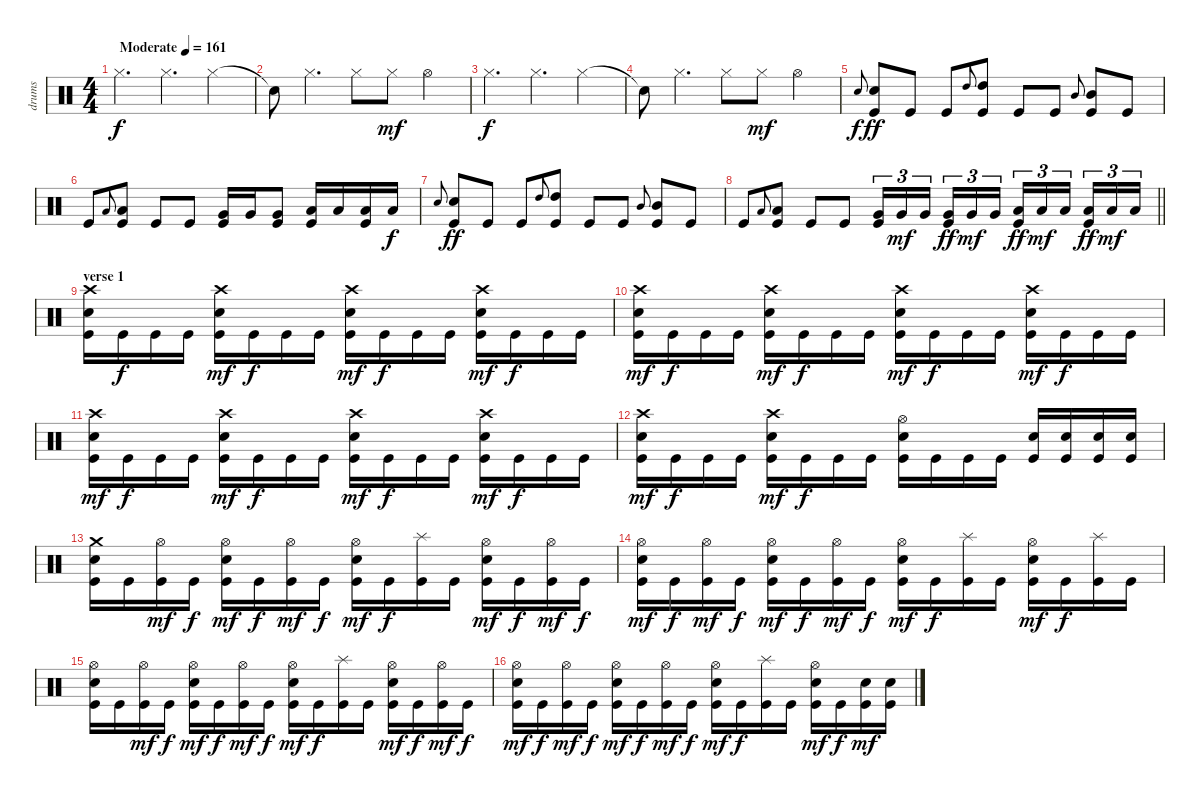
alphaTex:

\track ("drums" "drums") {instrument percussion}
\staff {score}
\articulation defaults
\ts (4 4)
\tempo (161 "Moderate")
\clef neutral
\ks c "Hi-Hat (closed)".4{d dy f} "Hi-Hat (closed)".4{d} "Hi-Hat (closed)".4
|
"Snare (hit)"{t}.8 "Hi-Hat (closed)".4{d} "Hi-Hat (closed)".8 "Hi-Hat (closed)".8{dy mf} "Hi-Hat (open)".4 |
"Hi-Hat (closed)".4{d dy f} "Hi-Hat (closed)".4{d} "Hi-Hat (closed)".4 |
"Snare (hit)"{t}.8 "Hi-Hat (closed)".4{d} "Hi-Hat (closed)".8 "Hi-Hat (closed)".8{dy mf} "Hi-Hat (open)".4 |
"Electric Snare (hit)".8{gr onbeat dy f} ("Electric Snare (hit)" "Kick (hit)").8{dy ff} "Kick (hit)".8 "Kick (hit)".8 "High Tom (hit)".8{gr onbeat} ("High Tom (hit)" "Kick (hit)").8 "Kick (hit)".8 "Kick (hit)".8 "Mid Tom (hit)".8{gr onbeat} ("Mid Tom (hit)" "Kick (hit)").8 "Kick (hit)".8 |
"Kick (hit)".8 "Low Tom (hit)".8{gr onbeat} ("Low Tom (hit)" "Kick (hit)").8 "Kick (hit)".8 "Kick (hit)".8 ("Very Low Tom (hit)" "Kick (hit)").16 "Very Low Tom (hit)".16 ("Very Low Tom (hit)" "Kick (hit)").8 ("Low Floor Tom (hit)" "Kick (hit)").16 "Low Floor Tom (hit)".16 ("Low Floor Tom (hit)" "Kick (hit)").16 "Low Floor Tom (hit)".16{dy f} |
"Electric Snare (hit)".8{gr onbeat} ("Electric Snare (hit)" "Kick (hit)").8{dy ff} "Kick (hit)".8 "Kick (hit)".8 "High Tom (hit)".8{gr onbeat} ("High Tom (hit)" "Kick (hit)").8 "Kick (hit)".8 "Kick (hit)".8 "Mid Tom (hit)".8{gr onbeat} ("Mid Tom (hit)" "Kick (hit)").8 "Kick (hit)".8 |
\barLineRight lightlight "Kick (hit)".8 "Low Tom (hit)".8{gr onbeat}
("Low Tom (hit)" "Kick (hit)").8 "Kick (hit)".8 "Kick (hit)".8 ("Very Low Tom (hit)" "Kick (hit)").16{tu (3 2)} "Very Low Tom (hit)".16{tu (3 2) dy mf} "Very Low Tom (hit)".16{tu (3 2) beam splitsecondary} ("Very Low Tom (hit)" "Kick (hit)").16{tu (3 2) dy ff} "Very Low Tom (hit)".16{tu (3 2) dy mf} "Very Low Tom (hit)".16{tu (3 2)} ("Low Floor Tom (hit)" "Kick (hit)").16{tu (3 2) dy ff} "Low Floor Tom (hit)".16{tu (3 2) dy mf} "Low Floor Tom (hit)".16{tu (3 2) beam splitsecondary} ("Low Floor Tom (hit)" "Kick (hit)").16{tu (3 2) dy ff} "Low Floor Tom (hit)".16{tu (3 2) dy mf} "Low Floor Tom (hit)".16{tu (3 2)} |
\section ("" "verse 1")
("Crash high (hit)" "Electric Snare (hit)" "Kick (hit)").16 "Kick (hit)".16{dy f} "Kick (hit)".16 "Kick (hit)".16 ("Crash high (hit)" "Electric Snare (hit)" "Kick (hit)").16{dy mf} "Kick (hit)".16{dy f} "Kick (hit)".16 "Kick (hit)".16 ("Crash high (hit)" "Electric Snare (hit)" "Kick (hit)").16{dy mf} "Kick (hit)".16{dy f} "Kick (hit)".16 "Kick (hit)".16 ("Crash high (hit)" "Electric Snare (hit)" "Kick (hit)").16{dy mf} "Kick (hit)".16{dy f} "Kick (hit)".16 "Kick (hit)".16 |
("Crash high (hit)" "Electric Snare (hit)" "Kick (hit)").16{dy mf} "Kick (hit)".16{dy f} "Kick (hit)".16 "Kick (hit)".16 ("Crash high (hit)" "Electric Snare (hit)" "Kick (hit)").16{dy mf} "Kick (hit)".16{dy f} "Kick (hit)".16 "Kick (hit)".16 ("Crash high (hit)" "Electric Snare (hit)" "Kick (hit)").16{dy mf} "Kick (hit)".16{dy f} "Kick (hit)".16 "Kick (hit)".16 ("Crash high (hit)" "Electric Snare (hit)" "Kick (hit)").16{dy mf} "Kick (hit)".16{dy f} "Kick (hit)".16 "Kick (hit)".16 |
("Crash high (hit)" "Electric Snare (hit)" "Kick (hit)").16{dy mf} "Kick (hit)".16{dy f} "Kick (hit)".16 "Kick (hit)".16 ("Crash high (hit)" "Electric Snare (hit)" "Kick (hit)").16{dy mf} "Kick (hit)".16{dy f} "Kick (hit)".16 "Kick (hit)".16 ("Crash high (hit)" "Electric Snare (hit)" "Kick (hit)").16{dy mf} "Kick (hit)".16{dy f} "Kick (hit)".16 "Kick (hit)".16 ("Crash high (hit)" "Electric Snare (hit)" "Kick (hit)").16{dy mf} "Kick (hit)".16{dy f} "Kick (hit)".16 "Kick (hit)".16 |
("Crash high (hit)" "Electric Snare (hit)" "Kick (hit)").16{dy mf} "Kick (hit)".16{dy f} "Kick (hit)".16 "Kick (hit)".16 ("Crash high (hit)" "Electric Snare (hit)" "Kick (hit)").16{dy mf} "Kick (hit)".16{dy f} "Kick (hit)".16 "Kick (hit)".16 ("Hi-Hat (open)" "Electric Snare (hit)" "Kick (hit)").16 "Kick (hit)".16 "Kick (hit)".16 "Kick (hit)".16 ("Electric Snare (hit)" "Kick (hit)").16 ("Electric Snare (hit)" "Kick (hit)").16 ("Electric Snare (hit)" "Kick (hit)").16 ("Electric Snare (hit)" "Kick (hit)").16 |
("Crash medium (hit)" "Electric Snare (hit)" "Kick (hit)").16 "Kick (hit)".16 ("Hi-Hat (open)" "Kick (hit)").16{dy mf} "Kick (hit)".16{dy f} ("Hi-Hat (open)" "Electric Snare (hit)" "Kick (hit)").16{dy mf} "Kick (hit)".16{dy f} ("Hi-Hat (open)" "Kick (hit)").16{dy mf} "Kick (hit)".16{dy f} ("Hi-Hat (open)" "Electric Snare (hit)" "Kick (hit)").16{dy mf} "Kick (hit)".16{dy f} ("Splash (hit)" "Kick (hit)").16 "Kick (hit)".16 ("Hi-Hat (open)" "Electric Snare (hit)" "Kick (hit)").16{dy mf} "Kick (hit)".16{dy f} ("Hi-Hat (open)" "Kick (hit)").16{dy mf} "Kick (hit)".16{dy f} |
("Hi-Hat (open)" "Electric Snare (hit)" "Kick (hit)").16{dy mf} "Kick (hit)".16{dy f} ("Hi-Hat (open)" "Kick (hit)").16{dy mf} "Kick (hit)".16{dy f} ("Hi-Hat (open)" "Electric Snare (hit)" "Kick (hit)").16{dy mf} "Kick (hit)".16{dy f} ("Hi-Hat (open)" "Kick (hit)").16{dy mf} "Kick (hit)".16{dy f} ("Hi-Hat (open)" "Electric Snare (hit)" "Kick (hit)").16{dy mf} "Kick (hit)".16{dy f} ("Splash (hit)" "Kick (hit)").16 "Kick (hit)".16 ("Hi-Hat (open)" "Electric Snare (hit)" "Kick (hit)").16{dy mf} "Kick (hit)".16{dy f} ("Splash (hit)" "Kick (hit)").16 "Kick (hit)".16 |
("Hi-Hat (open)" "Electric Snare (hit)" "Kick (hit)").16 "Kick (hit)".16 ("Hi-Hat (open)" "Kick (hit)").16{dy mf} "Kick (hit)".16{dy f} ("Hi-Hat (open)" "Electric Snare (hit)" "Kick (hit)").16{dy mf} "Kick (hit)".16{dy f} ("Hi-Hat (open)" "Kick (hit)").16{dy mf} "Kick (hit)".16{dy f} ("Hi-Hat (open)" "Electric Snare (hit)" "Kick (hit)").16{dy mf} "Kick (hit)".16{dy f} ("Splash (hit)" "Kick (hit)").16 "Kick (hit)".16 ("Hi-Hat (open)" "Electric Snare (hit)" "Kick (hit)").16{dy mf} "Kick (hit)".16{dy f} ("Hi-Hat (open)" "Kick (hit)").16{dy mf} "Kick (hit)".16{dy f} |
("Hi-Hat (open)" "Electric Snare (hit)" "Kick (hit)").16{dy mf} "Kick (hit)".16{dy f} ("Hi-Hat (open)" "Kick (hit)").16{dy mf} "Kick (hit)".16{dy f} ("Hi-Hat (open)" "Electric Snare (hit)" "Kick (hit)").16{dy mf} "Kick (hit)".16{dy f} ("Hi-Hat (open)" "Kick (hit)").16{dy mf} "Kick (hit)".16{dy f} ("Hi-Hat (open)" "Electric Snare (hit)" "Kick (hit)").16{dy mf} "Kick (hit)".16{dy f} ("Splash (hit)" "Kick (hit)").16 "Kick (hit)".16 ("Hi-Hat (open)" "Electric Snare (hit)" "Kick (hit)").16{dy mf} "Kick (hit)".16{dy f} ("Electric Snare (hit)" "Kick (hit)").16{dy mf} ("Electric Snare (hit)" "Kick (hit)").16
